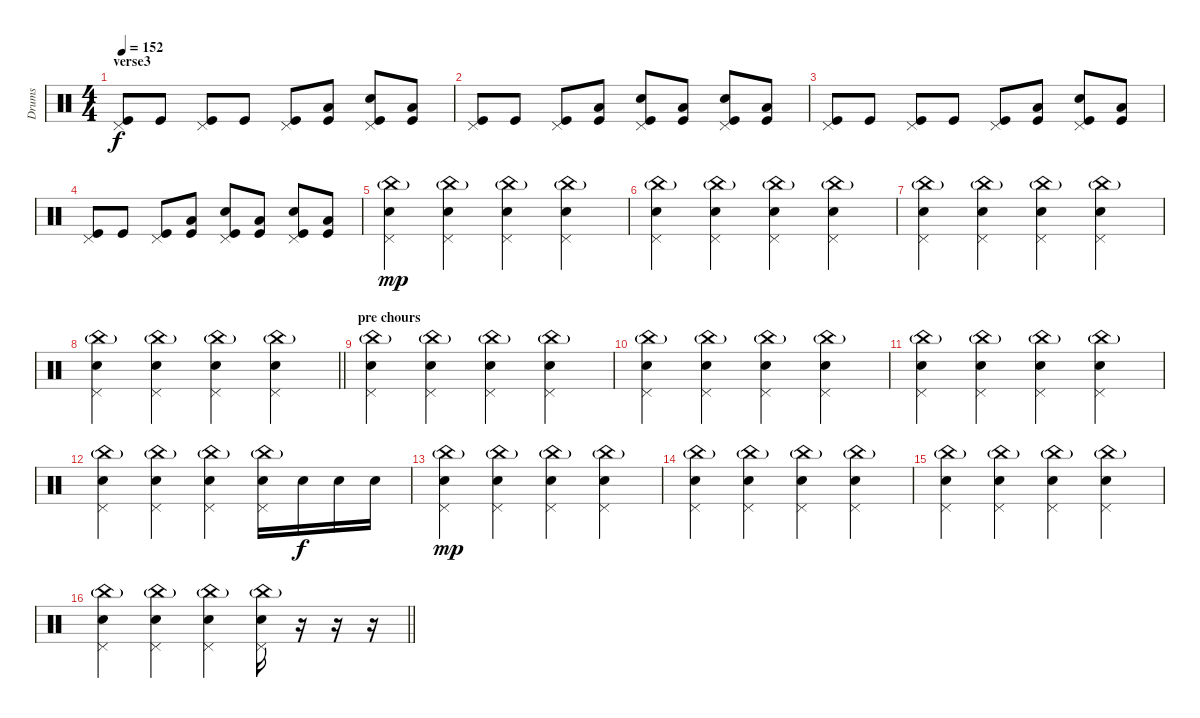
\track ("Drums" "Drums") {instrument percussion}
\staff {score}
\articulation defaults
\ts (4 4)
\section ("" "verse3")
\tempo 152
\clef neutral
\ks c
("Kick (hit)" "Pedal Hi-Hat (hit)").8{dy f} "Kick (hit)".8 ("Kick (hit)" "Pedal Hi-Hat (hit)").8 "Kick (hit)".8 ("Kick (hit)" "Pedal Hi-Hat (hit)").8 ("Kick (hit)" "Low Tom (hit)").8 ("Kick (hit)" "Pedal Hi-Hat (hit)" "Electric Snare (hit)").8 ("Kick (hit)" "Low Tom (hit)").8 |
("Kick (hit)" "Pedal Hi-Hat (hit)").8 "Kick (hit)".8 ("Kick (hit)" "Pedal Hi-Hat (hit)").8 ("Kick (hit)" "Low Tom (hit)").8 ("Kick (hit)" "Pedal Hi-Hat (hit)" "Electric Snare (hit)").8 ("Kick (hit)" "Low Tom (hit)").8 ("Kick (hit)" "Pedal Hi-Hat (hit)" "Electric Snare (hit)").8 ("Kick (hit)" "Low Tom (hit)").8 |
("Kick (hit)" "Pedal Hi-Hat (hit)").8 "Kick (hit)".8 ("Kick (hit)" "Pedal Hi-Hat (hit)").8 "Kick (hit)".8 ("Kick (hit)" "Pedal Hi-Hat (hit)").8 ("Kick (hit)" "Low Tom (hit)").8 ("Kick (hit)" "Pedal Hi-Hat (hit)" "Electric Snare (hit)").8 ("Kick (hit)" "Low Tom (hit)").8 |
("Kick (hit)" "Pedal Hi-Hat (hit)").8 "Kick (hit)".8 ("Kick (hit)" "Pedal Hi-Hat (hit)").8 ("Kick (hit)" "Low Tom (hit)").8 ("Kick (hit)" "Pedal Hi-Hat (hit)" "Electric Snare (hit)").8 ("Kick (hit)" "Low Tom (hit)").8 ("Kick (hit)" "Pedal Hi-Hat (hit)" "Electric Snare (hit)").8 ("Kick (hit)" "Low Tom (hit)").8 |
("China (hit)"{g} "Electric Snare (hit)" "Pedal Hi-Hat (hit)").4{dy mp} ("China (hit)"{g} "Electric Snare (hit)" "Pedal Hi-Hat (hit)").4 ("China (hit)"{g} "Electric Snare (hit)" "Pedal Hi-Hat (hit)").4 ("China (hit)"{g} "Electric Snare (hit)" "Pedal Hi-Hat (hit)").4 |
("China (hit)"{g} "Electric Snare (hit)" "Pedal Hi-Hat (hit)").4 ("China (hit)"{g} "Electric Snare (hit)" "Pedal Hi-Hat (hit)").4 ("China (hit)"{g} "Electric Snare (hit)" "Pedal Hi-Hat (hit)").4 ("China (hit)"{g} "Electric Snare (hit)" "Pedal Hi-Hat (hit)").4 |
("China (hit)"{g} "Electric Snare (hit)" "Pedal Hi-Hat (hit)").4 ("China (hit)"{g} "Electric Snare (hit)" "Pedal Hi-Hat (hit)").4 ("China (hit)"{g} "Electric Snare (hit)" "Pedal Hi-Hat (hit)").4 ("China (hit)"{g} "Electric Snare (hit)" "Pedal Hi-Hat (hit)").4 |
\barLineRight lightlight
("China (hit)"{g} "Electric Snare (hit)" "Pedal Hi-Hat (hit)").4 ("China (hit)"{g} "Electric Snare (hit)" "Pedal Hi-Hat (hit)").4 ("China (hit)"{g} "Electric Snare (hit)" "Pedal Hi-Hat (hit)").4 ("China (hit)"{g} "Electric Snare (hit)" "Pedal Hi-Hat (hit)").4 |
\section ("" "pre chours")
("China (hit)"{g} "Electric Snare (hit)" "Pedal Hi-Hat (hit)").4 ("China (hit)"{g} "Electric Snare (hit)" "Pedal Hi-Hat (hit)").4 ("China (hit)"{g} "Electric Snare (hit)" "Pedal Hi-Hat (hit)").4 ("China (hit)"{g} "Electric Snare (hit)" "Pedal Hi-Hat (hit)").4 |
("China (hit)"{g} "Electric Snare (hit)" "Pedal Hi-Hat (hit)").4 ("China (hit)"{g} "Electric Snare (hit)" "Pedal Hi-Hat (hit)").4 ("China (hit)"{g} "Electric Snare (hit)" "Pedal Hi-Hat (hit)").4 ("China (hit)"{g} "Electric Snare (hit)" "Pedal Hi-Hat (hit)").4 |
("China (hit)"{g} "Electric Snare (hit)" "Pedal Hi-Hat (hit)").4 ("China (hit)"{g} "Electric Snare (hit)" "Pedal Hi-Hat (hit)").4 ("China (hit)"{g} "Electric Snare (hit)" "Pedal Hi-Hat (hit)").4 ("China (hit)"{g} "Electric Snare (hit)" "Pedal Hi-Hat (hit)").4 |
("China (hit)"{g} "Electric Snare (hit)" "Pedal Hi-Hat (hit)").4 ("China (hit)"{g} "Electric Snare (hit)" "Pedal Hi-Hat (hit)").4 ("China (hit)"{g} "Electric Snare (hit)" "Pedal Hi-Hat (hit)").4 ("China (hit)"{g} "Electric Snare (hit)" "Pedal Hi-Hat (hit)").16 "Electric Snare (hit)".16{dy f} "Electric Snare (hit)".16 "Electric Snare (hit)".16 |
("China (hit)"{g} "Electric Snare (hit)" "Pedal Hi-Hat (hit)").4{dy mp} ("China (hit)"{g} "Electric Snare (hit)" "Pedal Hi-Hat (hit)").4 ("China (hit)"{g} "Electric Snare (hit)" "Pedal Hi-Hat (hit)").4 ("China (hit)"{g} "Electric Snare (hit)" "Pedal Hi-Hat (hit)").4 |
("China (hit)"{g} "Electric Snare (hit)" "Pedal Hi-Hat (hit)").4 ("China (hit)"{g} "Electric Snare (hit)" "Pedal Hi-Hat (hit)").4 ("China (hit)"{g} "Electric Snare (hit)" "Pedal Hi-Hat (hit)").4 ("China (hit)"{g} "Electric Snare (hit)" "Pedal Hi-Hat (hit)").4 |
("China (hit)"{g} "Electric Snare (hit)" "Pedal Hi-Hat (hit)").4 ("China (hit)"{g} "Electric Snare (hit)" "Pedal Hi-Hat (hit)").4 ("China (hit)"{g} "Electric Snare (hit)" "Pedal Hi-Hat (hit)").4 ("China (hit)"{g} "Electric Snare (hit)" "Pedal Hi-Hat (hit)").4 |
\barLineRight lightlight
("China (hit)"{g} "Electric Snare (hit)" "Pedal Hi-Hat (hit)").4 ("China (hit)"{g} "Electric Snare (hit)" "Pedal Hi-Hat (hit)").4 ("China (hit)"{g} "Electric Snare (hit)" "Pedal Hi-Hat (hit)").4 ("China (hit)"{g} "Electric Snare (hit)" "Pedal Hi-Hat (hit)").16 r.16 r.16 r.16
